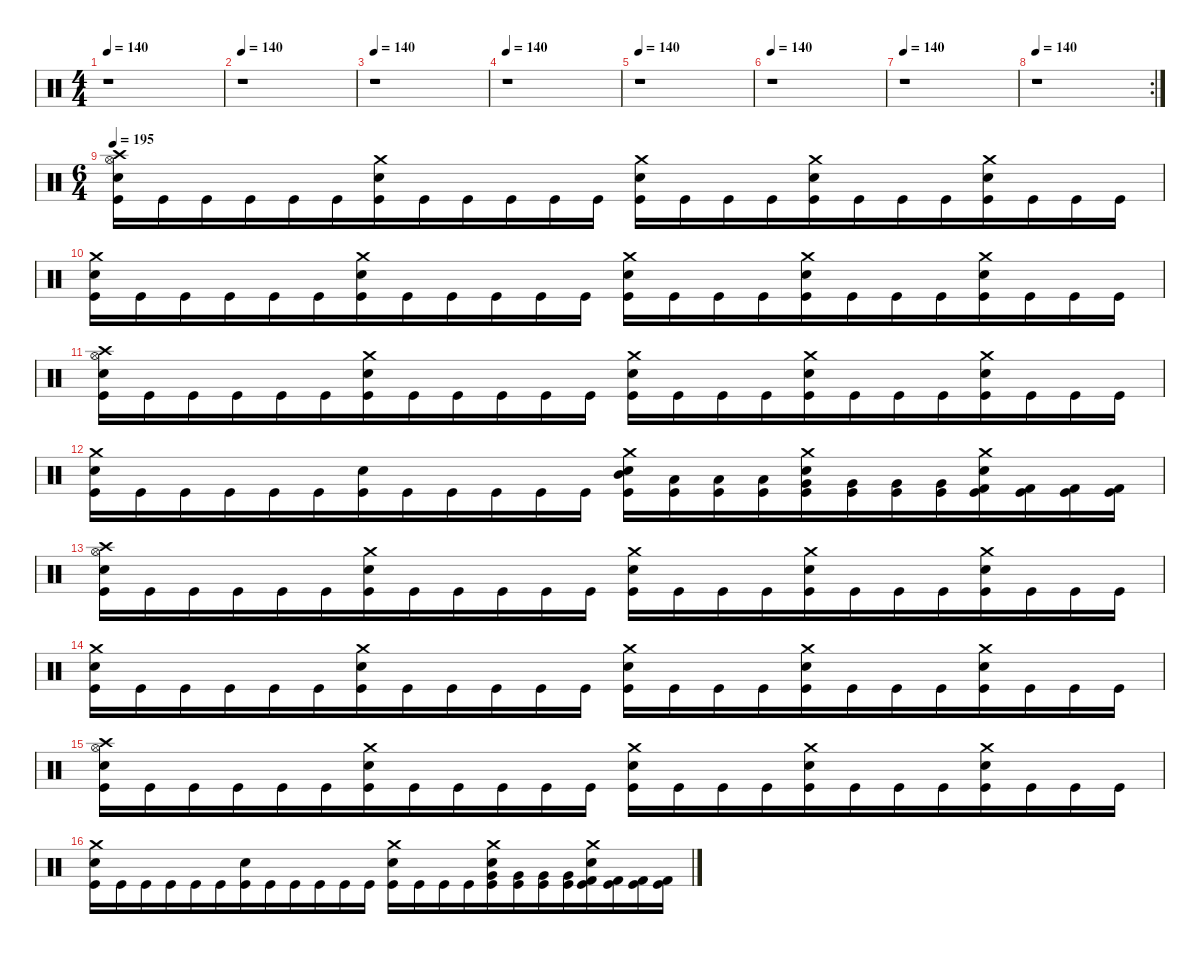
\defaultSystemsLayout 4
\hideDynamics
\bracketExtendMode nobrackets
\singleTrackTrackNamePolicy hidden
\multiTrackTrackNamePolicy hidden
\firstSystemTrackNameMode fullname
\firstSystemTrackNameOrientation horizontal
\otherSystemsTrackNameOrientation horizontal
\track ("Percussion" "drm.") {defaultSystemsLayout 2 instrument percussion}
\staff {score}
\articulation defaults
\ts (4 4)
\beaming (8 2 2 2 2)
\tempo 140
\clef neutral
\ks c
r.1{dy f beam Down} |
\tempo 140
r.1{beam Down} |
\tempo 140
r.1{beam Down} |
\tempo 140
r.1{beam Down} |
\tempo 140
r.1{beam Down} |
\tempo 140
r.1{beam Down} |
\tempo 140
r.1{beam Down} |
\rc 2
\tempo 140
r.1{beam Down} |
\ts (6 4)
\beaming (8 6 6)
\tempo 195
("Crash high (hit)" "Hi-Hat (open)" "Snare (hit) 2" "Kick (hit)").16{beam Down} "Kick (hit)".16{beam Down} "Kick (hit)".16{beam Down} "Kick (hit)".16{beam Down} "Kick (hit)".16{beam Down} "Kick (hit)".16{beam Down} ("Crash medium (hit)" "Snare (hit) 2" "Kick (hit)").16{beam Down} "Kick (hit)".16{beam Down} "Kick (hit)".16{beam Down} "Kick (hit)".16{beam Down} "Kick (hit)".16{beam Down} "Kick (hit)".16{beam Down} ("Crash medium (hit)" "Snare (hit) 2" "Kick (hit)").16{beam Down} "Kick (hit)".16{beam Down} "Kick (hit)".16{beam Down} "Kick (hit)".16{beam Down} ("Crash medium (hit)" "Snare (hit) 2" "Kick (hit)").16{beam Down} "Kick (hit)".16{beam Down} "Kick (hit)".16{beam Down} "Kick (hit)".16{beam Down} ("Crash medium (hit)" "Snare (hit) 2" "Kick (hit)").16{beam Down} "Kick (hit)".16{beam Down} "Kick (hit)".16{beam Down} "Kick (hit)".16{beam Down} |
("Crash medium (hit)" "Snare (hit) 2" "Kick (hit)").16{beam Down} "Kick (hit)".16{beam Down} "Kick (hit)".16{beam Down} "Kick (hit)".16{beam Down} "Kick (hit)".16{beam Down} "Kick (hit)".16{beam Down} ("Crash medium (hit)" "Snare (hit) 2" "Kick (hit)").16{beam Down} "Kick (hit)".16{beam Down} "Kick (hit)".16{beam Down} "Kick (hit)".16{beam Down} "Kick (hit)".16{beam Down} "Kick (hit)".16{beam Down} ("Crash medium (hit)" "Snare (hit) 2" "Kick (hit)").16{beam Down} "Kick (hit)".16{beam Down} "Kick (hit)".16{beam Down} "Kick (hit)".16{beam Down} ("Crash medium (hit)" "Snare (hit) 2" "Kick (hit)").16{beam Down} "Kick (hit)".16{beam Down} "Kick (hit)".16{beam Down} "Kick (hit)".16{beam Down} ("Crash medium (hit)" "Snare (hit) 2" "Kick (hit)").16{beam Down} "Kick (hit)".16{beam Down} "Kick (hit)".16{beam Down} "Kick (hit)".16{beam Down} |
("Crash high (hit)" "Hi-Hat (open)" "Snare (hit) 2" "Kick (hit)").16{beam Down} "Kick (hit)".16{beam Down} "Kick (hit)".16{beam Down} "Kick (hit)".16{beam Down} "Kick (hit)".16{beam Down} "Kick (hit)".16{beam Down} ("Crash medium (hit)" "Snare (hit) 2" "Kick (hit)").16{beam Down} "Kick (hit)".16{beam Down} "Kick (hit)".16{beam Down} "Kick (hit)".16{beam Down} "Kick (hit)".16{beam Down} "Kick (hit)".16{beam Down} ("Crash medium (hit)" "Snare (hit) 2" "Kick (hit)").16{beam Down} "Kick (hit)".16{beam Down} "Kick (hit)".16{beam Down} "Kick (hit)".16{beam Down} ("Crash medium (hit)" "Snare (hit) 2" "Kick (hit)").16{beam Down} "Kick (hit)".16{beam Down} "Kick (hit)".16{beam Down} "Kick (hit)".16{beam Down} ("Crash medium (hit)" "Snare (hit) 2" "Kick (hit)").16{beam Down} "Kick (hit)".16{beam Down} "Kick (hit)".16{beam Down} "Kick (hit)".16{beam Down} |
("Crash medium (hit)" "Snare (hit) 2" "Kick (hit)").16{beam Down} "Kick (hit)".16{beam Down} "Kick (hit)".16{beam Down} "Kick (hit)".16{beam Down} "Kick (hit)".16{beam Down} "Kick (hit)".16{beam Down} ("Snare (hit) 2" "Kick (hit)").16{beam Down} "Kick (hit)".16{beam Down} "Kick (hit)".16{beam Down} "Kick (hit)".16{beam Down} "Kick (hit)".16{beam Down} "Kick (hit)".16{beam Down} ("Mid Tom (hit)" "Crash medium (hit)" "Snare (hit) 2" "Kick (hit)").16{beam Down} ("Low Tom (hit)" "Kick (hit)").16{beam Down} ("Low Tom (hit)" "Kick (hit)").16{beam Down} ("Low Tom (hit)" "Kick (hit)").16{beam Down} ("Very Low Tom (hit)" "Crash medium (hit)" "Snare (hit) 2" "Kick (hit)").16{beam Down} ("Very Low Tom (hit)" "Kick (hit)").16{beam Down} ("Very Low Tom (hit)" "Kick (hit)").16{beam Down} ("Very Low Tom (hit)" "Kick (hit)").16{beam Down} ("Crash medium (hit)" "Snare (hit) 2" "Kick (hit)" "Kick (hit) 2").16{beam Down} ("Kick (hit)" "Kick (hit) 2").16{beam Down} ("Kick (hit)" "Kick (hit) 2").16{beam Down} ("Kick (hit)" "Kick (hit) 2").16{beam Down} |
("Crash high (hit)" "Hi-Hat (open)" "Snare (hit) 2" "Kick (hit)").16{beam Down} "Kick (hit)".16{beam Down} "Kick (hit)".16{beam Down} "Kick (hit)".16{beam Down} "Kick (hit)".16{beam Down} "Kick (hit)".16{beam Down} ("Crash medium (hit)" "Snare (hit) 2" "Kick (hit)").16{beam Down} "Kick (hit)".16{beam Down} "Kick (hit)".16{beam Down} "Kick (hit)".16{beam Down} "Kick (hit)".16{beam Down} "Kick (hit)".16{beam Down} ("Crash medium (hit)" "Snare (hit) 2" "Kick (hit)").16{beam Down} "Kick (hit)".16{beam Down} "Kick (hit)".16{beam Down} "Kick (hit)".16{beam Down} ("Crash medium (hit)" "Snare (hit) 2" "Kick (hit)").16{beam Down} "Kick (hit)".16{beam Down} "Kick (hit)".16{beam Down} "Kick (hit)".16{beam Down} ("Crash medium (hit)" "Snare (hit) 2" "Kick (hit)").16{beam Down} "Kick (hit)".16{beam Down} "Kick (hit)".16{beam Down} "Kick (hit)".16{beam Down} |
("Crash medium (hit)" "Snare (hit) 2" "Kick (hit)").16{beam Down} "Kick (hit)".16{beam Down} "Kick (hit)".16{beam Down} "Kick (hit)".16{beam Down} "Kick (hit)".16{beam Down} "Kick (hit)".16{beam Down} ("Crash medium (hit)" "Snare (hit) 2" "Kick (hit)").16{beam Down} "Kick (hit)".16{beam Down} "Kick (hit)".16{beam Down} "Kick (hit)".16{beam Down} "Kick (hit)".16{beam Down} "Kick (hit)".16{beam Down} ("Crash medium (hit)" "Snare (hit) 2" "Kick (hit)").16{beam Down} "Kick (hit)".16{beam Down} "Kick (hit)".16{beam Down} "Kick (hit)".16{beam Down} ("Crash medium (hit)" "Snare (hit) 2" "Kick (hit)").16{beam Down} "Kick (hit)".16{beam Down} "Kick (hit)".16{beam Down} "Kick (hit)".16{beam Down} ("Crash medium (hit)" "Snare (hit) 2" "Kick (hit)").16{beam Down} "Kick (hit)".16{beam Down} "Kick (hit)".16{beam Down} "Kick (hit)".16{beam Down} |
("Crash high (hit)" "Hi-Hat (open)" "Snare (hit) 2" "Kick (hit)").16{beam Down} "Kick (hit)".16{beam Down} "Kick (hit)".16{beam Down} "Kick (hit)".16{beam Down} "Kick (hit)".16{beam Down} "Kick (hit)".16{beam Down} ("Crash medium (hit)" "Snare (hit) 2" "Kick (hit)").16{beam Down} "Kick (hit)".16{beam Down} "Kick (hit)".16{beam Down} "Kick (hit)".16{beam Down} "Kick (hit)".16{beam Down} "Kick (hit)".16{beam Down} ("Crash medium (hit)" "Snare (hit) 2" "Kick (hit)").16{beam Down} "Kick (hit)".16{beam Down} "Kick (hit)".16{beam Down} "Kick (hit)".16{beam Down} ("Crash medium (hit)" "Snare (hit) 2" "Kick (hit)").16{beam Down} "Kick (hit)".16{beam Down} "Kick (hit)".16{beam Down} "Kick (hit)".16{beam Down} ("Crash medium (hit)" "Snare (hit) 2" "Kick (hit)").16{beam Down} "Kick (hit)".16{beam Down} "Kick (hit)".16{beam Down} "Kick (hit)".16{beam Down} |
("Crash medium (hit)" "Snare (hit) 2" "Kick (hit)").16{beam Down} "Kick (hit)".16{beam Down} "Kick (hit)".16{beam Down} "Kick (hit)".16{beam Down} "Kick (hit)".16{beam Down} "Kick (hit)".16{beam Down} ("Snare (hit) 2" "Kick (hit)").16{beam Down} "Kick (hit)".16{beam Down} "Kick (hit)".16{beam Down} "Kick (hit)".16{beam Down} "Kick (hit)".16{beam Down} "Kick (hit)".16{beam Down} ("Crash medium (hit)" "Snare (hit) 2" "Kick (hit)").16{beam Down} "Kick (hit)".16{beam Down} "Kick (hit)".16{beam Down} "Kick (hit)".16{beam Down} ("Very Low Tom (hit)" "Crash medium (hit)" "Snare (hit) 2" "Kick (hit)").16{beam Down} ("Very Low Tom (hit)" "Kick (hit)").16{beam Down} ("Very Low Tom (hit)" "Kick (hit)").16{beam Down} ("Very Low Tom (hit)" "Kick (hit)").16{beam Down} ("Crash medium (hit)" "Snare (hit) 2" "Kick (hit)" "Kick (hit) 2").16{beam Down} ("Kick (hit) 2" "Kick (hit)").16{beam Down} ("Kick (hit) 2" "Kick (hit)").16{beam Down} ("Kick (hit) 2" "Kick (hit)").16{beam Down}
